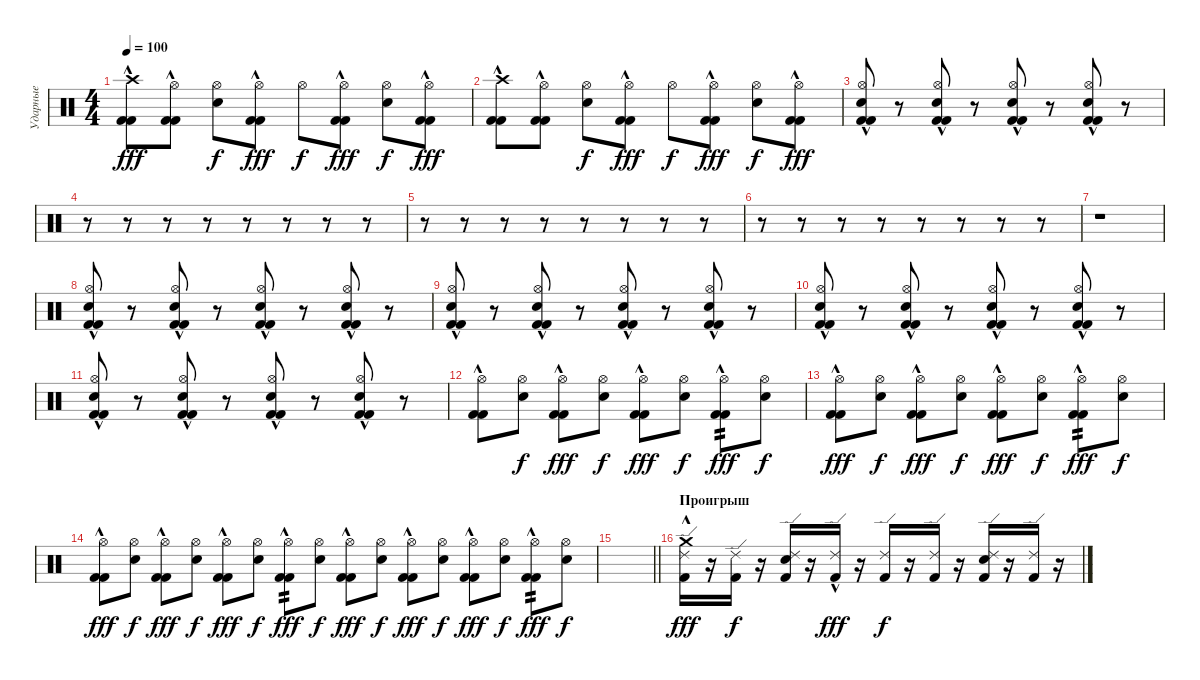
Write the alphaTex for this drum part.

\track ("Ударные" "Ударные") {instrument percussion}
\staff {score}
\articulation defaults
\ts (4 4)
\tempo 100
\clef neutral
\ks c
("Crash high (hit)" "Kick (hit) 2"{hac} "Kick (hit) 2").8{dy fff} ("Hi-Hat (open)" "Kick (hit) 2"{hac} "Kick (hit) 2").8 ("Hi-Hat (open)" "Electric Snare (hit)").8{dy f} ("Hi-Hat (open)" "Kick (hit) 2"{hac} "Kick (hit) 2").8{dy fff} "Hi-Hat (open)".8{dy f} ("Hi-Hat (open)" "Kick (hit) 2"{hac} "Kick (hit) 2").8{dy fff} ("Hi-Hat (open)" "Electric Snare (hit)").8{dy f} ("Hi-Hat (open)" "Kick (hit) 2"{hac} "Kick (hit) 2").8{dy fff} |
("Crash high (hit)" "Kick (hit) 2"{hac} "Kick (hit) 2").8 ("Hi-Hat (open)" "Kick (hit) 2"{hac} "Kick (hit) 2").8 ("Hi-Hat (open)" "Electric Snare (hit)").8{dy f} ("Hi-Hat (open)" "Kick (hit) 2"{hac} "Kick (hit) 2").8{dy fff} "Hi-Hat (open)".8{dy f} ("Hi-Hat (open)" "Kick (hit) 2"{hac} "Kick (hit) 2").8{dy fff} ("Hi-Hat (open)" "Electric Snare (hit)").8{dy f} ("Hi-Hat (open)" "Kick (hit) 2"{hac} "Kick (hit) 2").8{dy fff} |
("Hi-Hat (open)" "Kick (hit) 2"{hac} "Kick (hit) 2" "Snare (hit) 2").8 r.8 ("Hi-Hat (open)" "Kick (hit) 2"{hac} "Kick (hit) 2" "Snare (hit) 2").8 r.8 ("Hi-Hat (open)" "Kick (hit) 2"{hac} "Kick (hit) 2" "Snare (hit) 2").8 r.8 ("Hi-Hat (open)" "Kick (hit) 2"{hac} "Kick (hit) 2" "Snare (hit) 2").8 r.8 |
r.8 r.8 r.8 r.8 r.8 r.8 r.8 r.8 |
r.8 r.8 r.8 r.8 r.8 r.8 r.8 r.8 |
r.8 r.8 r.8 r.8 r.8 r.8 r.8 r.8 |
r.1 |
("Hi-Hat (open)" "Kick (hit) 2"{hac} "Kick (hit) 2" "Snare (hit) 2").8 r.8 ("Hi-Hat (open)" "Kick (hit) 2"{hac} "Kick (hit) 2" "Snare (hit) 2").8 r.8 ("Hi-Hat (open)" "Kick (hit) 2"{hac} "Kick (hit) 2" "Snare (hit) 2").8 r.8 ("Hi-Hat (open)" "Kick (hit) 2"{hac} "Kick (hit) 2" "Snare (hit) 2").8 r.8 |
("Hi-Hat (open)" "Kick (hit) 2"{hac} "Kick (hit) 2" "Snare (hit) 2").8 r.8 ("Hi-Hat (open)" "Kick (hit) 2"{hac} "Kick (hit) 2" "Snare (hit) 2").8 r.8 ("Hi-Hat (open)" "Kick (hit) 2"{hac} "Kick (hit) 2" "Snare (hit) 2").8 r.8 ("Hi-Hat (open)" "Kick (hit) 2"{hac} "Kick (hit) 2" "Snare (hit) 2").8 r.8 |
("Hi-Hat (open)" "Kick (hit) 2"{hac} "Kick (hit) 2" "Snare (hit) 2").8 r.8 ("Hi-Hat (open)" "Kick (hit) 2"{hac} "Kick (hit) 2" "Snare (hit) 2").8 r.8 ("Hi-Hat (open)" "Kick (hit) 2"{hac} "Kick (hit) 2" "Snare (hit) 2").8 r.8 ("Hi-Hat (open)" "Kick (hit) 2"{hac} "Kick (hit) 2" "Snare (hit) 2").8 r.8 |
("Hi-Hat (open)" "Kick (hit) 2"{hac} "Kick (hit) 2" "Snare (hit) 2").8 r.8 ("Hi-Hat (open)" "Kick (hit) 2"{hac} "Kick (hit) 2" "Snare (hit) 2").8 r.8 ("Hi-Hat (open)" "Kick (hit) 2"{hac} "Kick (hit) 2" "Snare (hit) 2").8 r.8 ("Hi-Hat (open)" "Kick (hit) 2"{hac} "Kick (hit) 2" "Snare (hit) 2").8 r.8 |
("Hi-Hat (open)" "Kick (hit) 2"{hac} "Kick (hit) 2").8 ("Hi-Hat (open)" "Electric Snare (hit)").8{dy f} ("Hi-Hat (open)" "Kick (hit) 2"{hac} "Kick (hit) 2").8{dy fff} ("Hi-Hat (open)" "Electric Snare (hit)").8{dy f} ("Hi-Hat (open)" "Kick (hit) 2"{hac} "Kick (hit) 2").8{dy fff} ("Hi-Hat (open)" "Electric Snare (hit)").8{dy f} ("Hi-Hat (open)" "Kick (hit) 2"{hac} "Kick (hit) 2").8{tp 2 dy fff} ("Hi-Hat (open)" "Electric Snare (hit)").8{dy f} |
("Hi-Hat (open)" "Kick (hit) 2"{hac} "Kick (hit) 2").8{dy fff} ("Hi-Hat (open)" "Electric Snare (hit)").8{dy f} ("Hi-Hat (open)" "Kick (hit) 2"{hac} "Kick (hit) 2").8{dy fff} ("Hi-Hat (open)" "Electric Snare (hit)").8{dy f} ("Hi-Hat (open)" "Kick (hit) 2"{hac} "Kick (hit) 2").8{dy fff} ("Hi-Hat (open)" "Electric Snare (hit)").8{dy f} ("Hi-Hat (open)" "Kick (hit) 2"{hac} "Kick (hit) 2").8{tp 2 dy fff} ("Hi-Hat (open)" "Electric Snare (hit)").8{dy f} |
("Hi-Hat (open)" "Kick (hit) 2"{hac} "Kick (hit) 2").8{dy fff} ("Hi-Hat (open)" "Electric Snare (hit)").8{dy f} ("Hi-Hat (open)" "Kick (hit) 2"{hac} "Kick (hit) 2").8{dy fff} ("Hi-Hat (open)" "Electric Snare (hit)").8{dy f} ("Hi-Hat (open)" "Kick (hit) 2"{hac} "Kick (hit) 2").8{dy fff} ("Hi-Hat (open)" "Electric Snare (hit)").8{dy f} ("Hi-Hat (open)" "Kick (hit) 2"{hac} "Kick (hit) 2").8{tp 2 dy fff} ("Hi-Hat (open)" "Electric Snare (hit)").8{dy f} ("Hi-Hat (open)" "Kick (hit) 2"{hac} "Kick (hit) 2").8{dy fff} ("Hi-Hat (open)" "Electric Snare (hit)").8{dy f} ("Hi-Hat (open)" "Kick (hit) 2"{hac} "Kick (hit) 2").8{dy fff} ("Hi-Hat (open)" "Electric Snare (hit)").8{dy f} ("Hi-Hat (open)" "Kick (hit) 2"{hac} "Kick (hit) 2").8{dy fff} ("Hi-Hat (open)" "Electric Snare (hit)").8{dy f} ("Hi-Hat (open)" "Kick (hit) 2"{hac} "Kick (hit) 2").8{tp 2 dy fff} ("Hi-Hat (open)" "Electric Snare (hit)").8{dy f} |
\barLineRight lightlight
|
\section ("" "Проигрыш")
("Ride (edge) 2" "Crash medium (hit)" "Kick (hit) 2"{hac}).16{dy fff} r.16 ("Ride (edge) 2" "Kick (hit) 2").16{dy f} r.16 ("Ride (edge) 2" "Snare (hit) 2" "Kick (hit) 2").16 r.16 ("Ride (edge) 2" "Kick (hit) 2"{hac}).16{dy fff} r.16 ("Ride (edge) 2" "Kick (hit) 2").16{dy f} r.16 ("Ride (edge) 2" "Kick (hit) 2").16 r.16 ("Ride (edge) 2" "Snare (hit) 2" "Kick (hit) 2").16 r.16 ("Ride (edge) 2" "Kick (hit) 2").16 r.16
